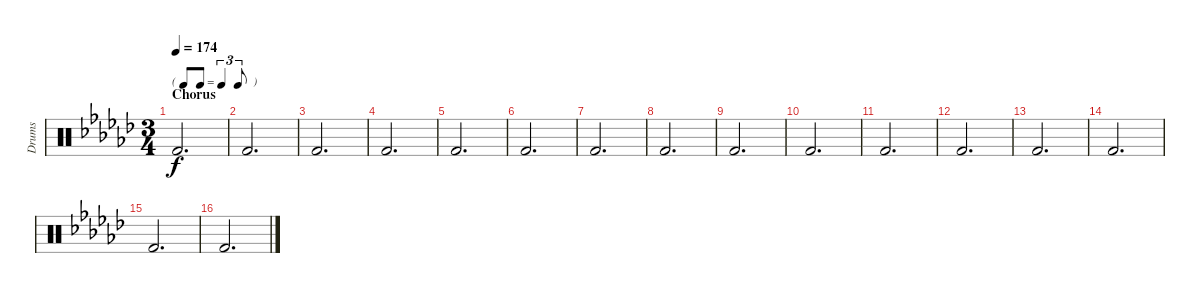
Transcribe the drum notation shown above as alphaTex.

\track ("Drums" "Drums") {instrument percussion}
\staff {score}
\articulation defaults
\ts (3 4)
\tf triplet8th
\section ("" "Chorus")
\tempo 174
\clef neutral
\ks ebminor "Kick (hit) 2".2{d dy f}
|
"Kick (hit) 2".2{d} |
"Kick (hit) 2".2{d} |
"Kick (hit) 2".2{d} |
"Kick (hit) 2".2{d} |
"Kick (hit) 2".2{d} |
"Kick (hit) 2".2{d} |
"Kick (hit) 2".2{d} |
"Kick (hit) 2".2{d} |
"Kick (hit) 2".2{d} |
"Kick (hit) 2".2{d} |
"Kick (hit) 2".2{d} |
"Kick (hit) 2".2{d} |
"Kick (hit) 2".2{d} |
"Kick (hit) 2".2{d} |
"Kick (hit) 2".2{d}
